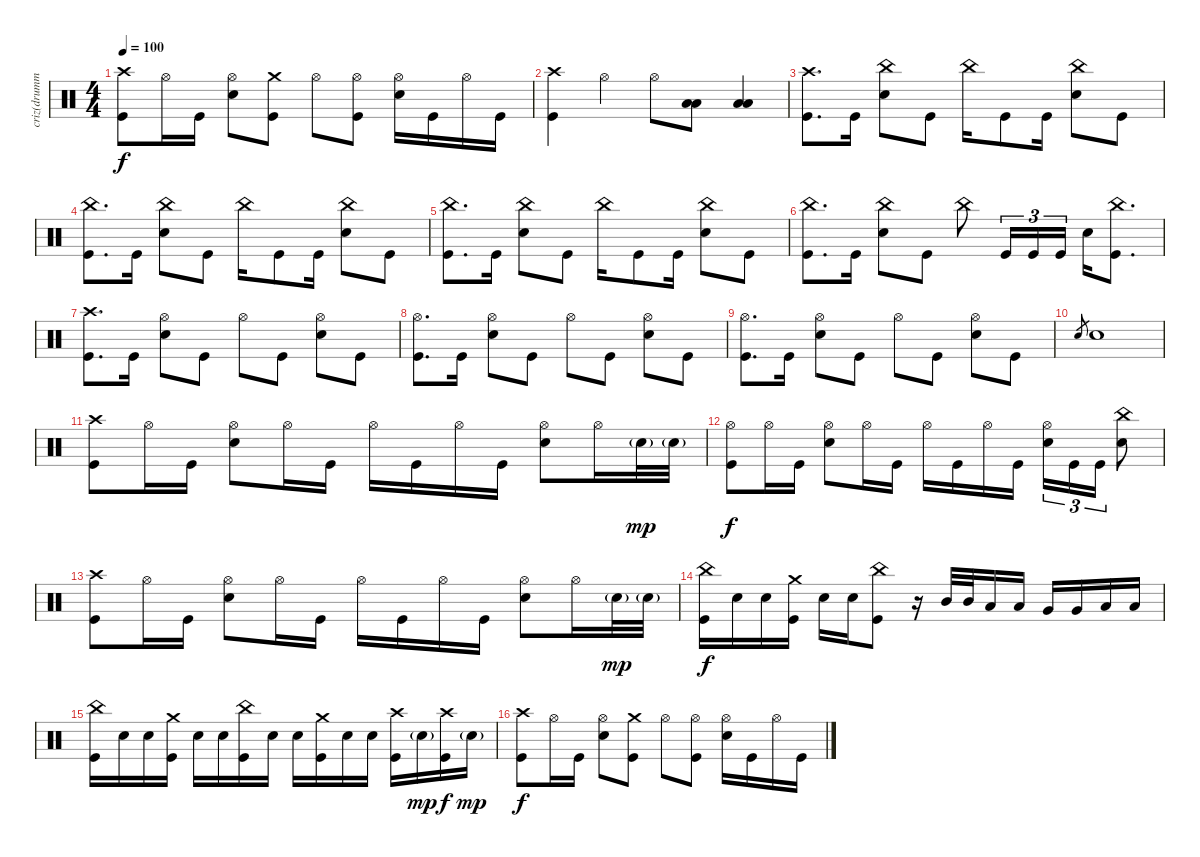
\track ("criz(drummer)" "criz(drumm") {instrument percussion}
\staff {score}
\articulation defaults
\ts (4 4)
\tempo 100
\clef neutral
\ks c
("Crash high (hit)" "Kick (hit)").8{dy f} "Hi-Hat (open)".16 "Kick (hit)".16 ("Hi-Hat (open)" "Electric Snare (hit)").8 ("Crash medium (hit)" "Kick (hit)").8 "Hi-Hat (open)".8 ("Hi-Hat (open)" "Kick (hit)").8 ("Hi-Hat (open)" "Electric Snare (hit)").16 "Kick (hit)".16 "Hi-Hat (open)".16 "Kick (hit)".16 |
("Crash high (hit)" "Kick (hit)").4 "Hi-Hat (open)".4 "Hi-Hat (open)".8 ("Low Tom (hit)" "Low Floor Tom (hit)").8 ("Low Tom (hit)" "Low Floor Tom (hit)").4 |
("Crash high (hit)" "Kick (hit)").8{d} "Kick (hit)".16 ("China (hit)" "Electric Snare (hit)").8 "Kick (hit)".8 "China (hit)".16 "Kick (hit)".8 "Kick (hit)".16 ("China (hit)" "Electric Snare (hit)").8 "Kick (hit)".8 |
("China (hit)" "Kick (hit)").8{d} "Kick (hit)".16 ("China (hit)" "Electric Snare (hit)").8 "Kick (hit)".8 "China (hit)".16 "Kick (hit)".8 "Kick (hit)".16 ("China (hit)" "Electric Snare (hit)").8 "Kick (hit)".8 |
("China (hit)" "Kick (hit)").8{d} "Kick (hit)".16 ("China (hit)" "Electric Snare (hit)").8 "Kick (hit)".8 "China (hit)".16 "Kick (hit)".8 "Kick (hit)".16 ("China (hit)" "Electric Snare (hit)").8 "Kick (hit)".8 |
("China (hit)" "Kick (hit)").8{d} "Kick (hit)".16 ("China (hit)" "Electric Snare (hit)").8 "Kick (hit)".8 "China (hit)".8 "Kick (hit)".16{tu (3 2)} "Kick (hit)".16{tu (3 2)} "Kick (hit)".16{tu (3 2)} "Electric Snare (hit)".16 ("China (hit)" "Kick (hit)").8{d} |
("Crash high (hit)" "Kick (hit)").8{d} "Kick (hit)".16 ("Hi-Hat (open)" "Electric Snare (hit)").8 "Kick (hit)".8 "Hi-Hat (open)".8 "Kick (hit)".8 ("Hi-Hat (open)" "Electric Snare (hit)").8 "Kick (hit)".8 |
("Hi-Hat (open)" "Kick (hit)").8{d} "Kick (hit)".16 ("Hi-Hat (open)" "Electric Snare (hit)").8 "Kick (hit)".8 "Hi-Hat (open)".8 "Kick (hit)".8 ("Hi-Hat (open)" "Electric Snare (hit)").8 "Kick (hit)".8 |
("Hi-Hat (open)" "Kick (hit)").8{d} "Kick (hit)".16 ("Hi-Hat (open)" "Electric Snare (hit)").8 "Kick (hit)".8 "Hi-Hat (open)".8 "Kick (hit)".8 ("Hi-Hat (open)" "Electric Snare (hit)").8 "Kick (hit)".8 |
"Electric Snare (hit)".8{gr} "Electric Snare (hit)".1 |
("Crash high (hit)" "Kick (hit)").8 "Hi-Hat (open)".16 "Kick (hit)".16 ("Hi-Hat (open)" "Electric Snare (hit)").8 "Hi-Hat (open)".16 "Kick (hit)".16 "Hi-Hat (open)".16 "Kick (hit)".16 "Hi-Hat (open)".16 "Kick (hit)".16 ("Hi-Hat (open)" "Electric Snare (hit)").8 "Hi-Hat (open)".16 "Electric Snare (hit)"{g}.32{dy mp} "Electric Snare (hit)"{g}.32 |
("Hi-Hat (open)" "Kick (hit)").8{dy f} "Hi-Hat (open)".16 "Kick (hit)".16 ("Hi-Hat (open)" "Electric Snare (hit)").8 "Hi-Hat (open)".16 "Kick (hit)".16 "Hi-Hat (open)".16 "Kick (hit)".16 "Hi-Hat (open)".16 "Kick (hit)".16 ("Hi-Hat (open)" "Electric Snare (hit)").16{tu (3 2)} "Kick (hit)".16{tu (3 2)} "Kick (hit)".16{tu (3 2)} ("China (hit)" "Electric Snare (hit)").8 |
("Crash high (hit)" "Kick (hit)").8 "Hi-Hat (open)".16 "Kick (hit)".16 ("Hi-Hat (open)" "Electric Snare (hit)").8 "Hi-Hat (open)".16 "Kick (hit)".16 "Hi-Hat (open)".16 "Kick (hit)".16 "Hi-Hat (open)".16 "Kick (hit)".16 ("Hi-Hat (open)" "Electric Snare (hit)").8 "Hi-Hat (open)".16 "Electric Snare (hit)"{g}.32{dy mp} "Electric Snare (hit)"{g}.32 |
("China (hit)" "Kick (hit)").16{dy f} "Electric Snare (hit)".16 "Electric Snare (hit)".16 ("Crash medium (hit)" "Kick (hit)").16 "Electric Snare (hit)".16 "Electric Snare (hit)".16 ("China (hit)" "Kick (hit)").8 r.16 "Mid Tom (hit)".32 "Mid Tom (hit)".32 "Low Tom (hit)".16 "Low Tom (hit)".16 "Very Low Tom (hit)".16 "Very Low Tom (hit)".16 "Low Floor Tom (hit)".16 "Low Floor Tom (hit)".16 |
("China (hit)" "Kick (hit)").16 "Electric Snare (hit)".16 "Electric Snare (hit)".16 ("Crash medium (hit)" "Kick (hit)").16 "Electric Snare (hit)".16 "Electric Snare (hit)".16 ("China (hit)" "Kick (hit)").16 "Electric Snare (hit)".16 "Electric Snare (hit)".16 ("Crash medium (hit)" "Kick (hit)").16 "Electric Snare (hit)".16 "Electric Snare (hit)".16 ("Crash high (hit)" "Kick (hit)").16 "Electric Snare (hit)"{g}.16{dy mp} ("Crash high (hit)" "Kick (hit)").16{dy f} "Electric Snare (hit)"{g}.16{dy mp} |
("Crash high (hit)" "Kick (hit)").8{dy f} "Hi-Hat (open)".16 "Kick (hit)".16 ("Hi-Hat (open)" "Electric Snare (hit)").8 ("Crash medium (hit)" "Kick (hit)").8 "Hi-Hat (open)".8 ("Hi-Hat (open)" "Kick (hit)").8 ("Hi-Hat (open)" "Electric Snare (hit)").16 "Kick (hit)".16 "Hi-Hat (open)".16 "Kick (hit)".16
